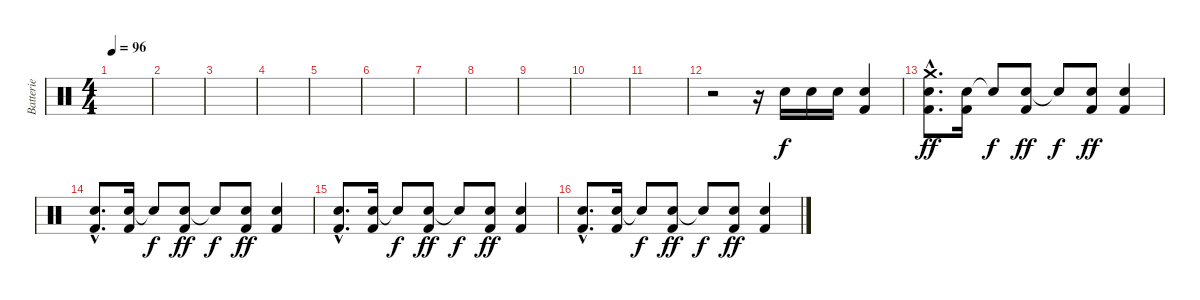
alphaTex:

\track ("Batterie" "Batterie") {instrument percussion}
\staff {score}
\articulation defaults
\ts (4 4)
\tempo 96
\clef neutral
\ks c
|
|
|
|
|
|
|
|
|
|
|
r.2 r.16 "Snare (hit) 2".16 "Snare (hit) 2".16 "Snare (hit) 2".16 ("Snare (hit) 2" "Kick (hit) 2").4 |
("Crash medium (hit)"{hac} "Snare (hit) 2"{hac} "Kick (hit) 2"{hac}).8{d dy ff} ("Snare (hit) 2" "Kick (hit) 2").16 "Snare (hit)"{t}.8{dy f} ("Snare (hit) 2" "Kick (hit) 2").8{dy ff} "Snare (hit)"{t}.8{dy f} ("Snare (hit) 2" "Kick (hit) 2").8{dy ff} ("Snare (hit) 2" "Kick (hit) 2").4 |
("Snare (hit) 2"{hac} "Kick (hit) 2"{hac}).8{d} ("Snare (hit) 2" "Kick (hit) 2").16 "Snare (hit)"{t}.8{dy f} ("Snare (hit) 2" "Kick (hit) 2").8{dy ff} "Snare (hit)"{t}.8{dy f} ("Snare (hit) 2" "Kick (hit) 2").8{dy ff} ("Snare (hit) 2" "Kick (hit) 2").4 |
("Snare (hit) 2"{hac} "Kick (hit) 2"{hac}).8{d} ("Snare (hit) 2" "Kick (hit) 2").16 "Snare (hit)"{t}.8{dy f} ("Snare (hit) 2" "Kick (hit) 2").8{dy ff} "Snare (hit)"{t}.8{dy f} ("Snare (hit) 2" "Kick (hit) 2").8{dy ff} ("Snare (hit) 2" "Kick (hit) 2").4 |
("Snare (hit) 2"{hac} "Kick (hit) 2"{hac}).8{d} ("Snare (hit) 2" "Kick (hit) 2").16 "Snare (hit)"{t}.8{dy f} ("Snare (hit) 2" "Kick (hit) 2").8{dy ff} "Snare (hit)"{t}.8{dy f} ("Snare (hit) 2" "Kick (hit) 2").8{dy ff} ("Snare (hit) 2" "Kick (hit) 2").4
